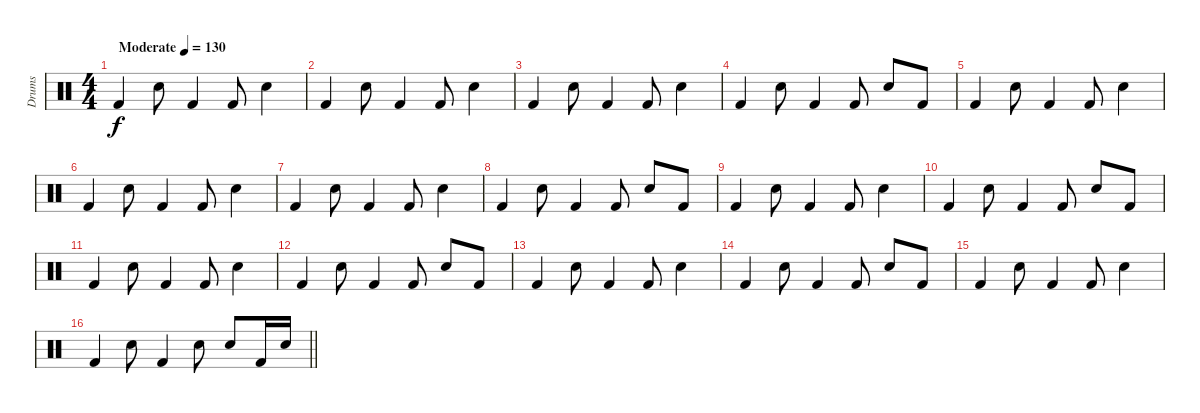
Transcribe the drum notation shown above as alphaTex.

\track ("Drums" "Drums") {instrument percussion}
\staff {score}
\articulation defaults
\ts (4 4)
\tempo (130 "Moderate")
\clef neutral
\ks c "Kick (hit) 2".4{dy f} "Snare (hit) 2".8 "Kick (hit) 2".4 "Kick (hit) 2".8 "Snare (hit) 2".4
|
"Kick (hit) 2".4 "Snare (hit) 2".8 "Kick (hit) 2".4 "Kick (hit) 2".8 "Snare (hit) 2".4 |
"Kick (hit) 2".4 "Snare (hit) 2".8 "Kick (hit) 2".4 "Kick (hit) 2".8 "Snare (hit) 2".4 |
"Kick (hit) 2".4 "Snare (hit) 2".8 "Kick (hit) 2".4 "Kick (hit) 2".8 "Snare (hit) 2".8 "Kick (hit) 2".8 |
"Kick (hit) 2".4 "Snare (hit) 2".8 "Kick (hit) 2".4 "Kick (hit) 2".8 "Snare (hit) 2".4 |
"Kick (hit) 2".4 "Snare (hit) 2".8 "Kick (hit) 2".4 "Kick (hit) 2".8 "Snare (hit) 2".4 |
"Kick (hit) 2".4 "Snare (hit) 2".8 "Kick (hit) 2".4 "Kick (hit) 2".8 "Snare (hit) 2".4 |
"Kick (hit) 2".4 "Snare (hit) 2".8 "Kick (hit) 2".4 "Kick (hit) 2".8 "Snare (hit) 2".8 "Kick (hit) 2".8 |
"Kick (hit) 2".4 "Snare (hit) 2".8 "Kick (hit) 2".4 "Kick (hit) 2".8 "Snare (hit) 2".4 |
"Kick (hit) 2".4 "Snare (hit) 2".8 "Kick (hit) 2".4 "Kick (hit) 2".8 "Snare (hit) 2".8 "Kick (hit) 2".8 |
"Kick (hit) 2".4 "Snare (hit) 2".8 "Kick (hit) 2".4 "Kick (hit) 2".8 "Snare (hit) 2".4 |
"Kick (hit) 2".4 "Snare (hit) 2".8 "Kick (hit) 2".4 "Kick (hit) 2".8 "Snare (hit) 2".8 "Kick (hit) 2".8 |
"Kick (hit) 2".4 "Snare (hit) 2".8 "Kick (hit) 2".4 "Kick (hit) 2".8 "Snare (hit) 2".4 |
"Kick (hit) 2".4 "Snare (hit) 2".8 "Kick (hit) 2".4 "Kick (hit) 2".8 "Snare (hit) 2".8 "Kick (hit) 2".8 |
"Kick (hit) 2".4 "Snare (hit) 2".8 "Kick (hit) 2".4 "Kick (hit) 2".8 "Snare (hit) 2".4 |
\barLineRight lightlight "Kick (hit) 2".4 "Snare (hit) 2".8 "Kick (hit) 2".4 "Snare (hit) 2".8 "Snare (hit) 2".8 "Kick (hit) 2".16 "Snare (hit) 2".16
